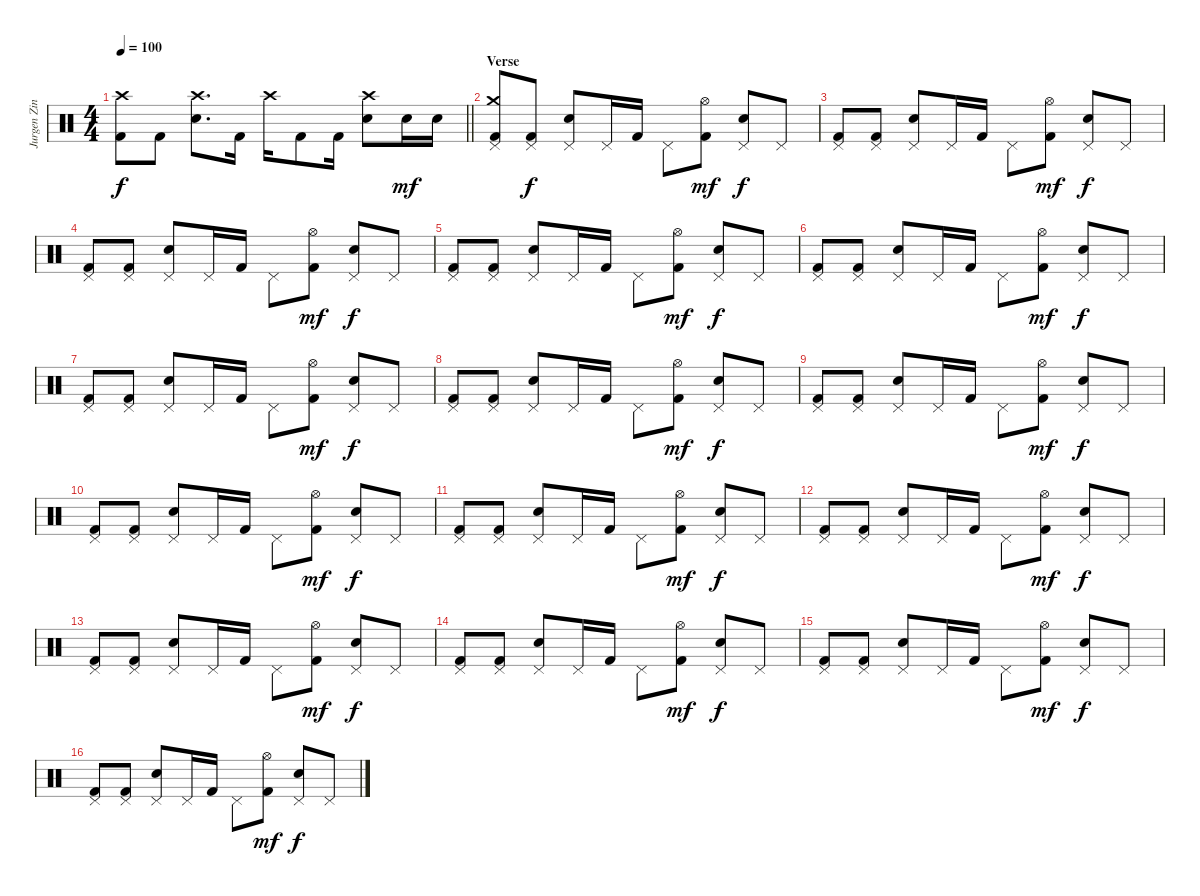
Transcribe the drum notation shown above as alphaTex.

\track ("Jurgen Zing" "Jurgen Zin") {instrument percussion}
\staff {score}
\articulation defaults
\ts (4 4)
\tempo 100
\clef neutral
\barLineRight lightlight
\ks c
("Crash high (hit)" "Kick (hit) 2").8{dy f} "Kick (hit) 2".8 ("Crash high (hit)" "Electric Snare (hit)").8{d} "Kick (hit) 2".16 "Crash high (hit)".16 "Kick (hit) 2".8 "Kick (hit) 2".16 ("Crash high (hit)" "Electric Snare (hit)").8 "Electric Snare (hit)".16{dy mf} "Electric Snare (hit)".16 |
\section ("" "Verse")
("Crash medium (hit)" "Pedal Hi-Hat (hit)" "Kick (hit) 2").8 ("Pedal Hi-Hat (hit)" "Kick (hit) 2").8{dy f} ("Pedal Hi-Hat (hit)" "Electric Snare (hit)").8 "Pedal Hi-Hat (hit)".16 "Kick (hit) 2".16 "Pedal Hi-Hat (hit)".8 ("Hi-Hat (open)" "Kick (hit) 2").8{dy mf} ("Pedal Hi-Hat (hit)" "Electric Snare (hit)").8{dy f} "Pedal Hi-Hat (hit)".8 |
("Pedal Hi-Hat (hit)" "Kick (hit) 2").8 ("Pedal Hi-Hat (hit)" "Kick (hit) 2").8 ("Pedal Hi-Hat (hit)" "Electric Snare (hit)").8 "Pedal Hi-Hat (hit)".16 "Kick (hit) 2".16 "Pedal Hi-Hat (hit)".8 ("Hi-Hat (open)" "Kick (hit) 2").8{dy mf} ("Pedal Hi-Hat (hit)" "Electric Snare (hit)").8{dy f} "Pedal Hi-Hat (hit)".8 |
("Pedal Hi-Hat (hit)" "Kick (hit) 2").8 ("Pedal Hi-Hat (hit)" "Kick (hit) 2").8 ("Pedal Hi-Hat (hit)" "Electric Snare (hit)").8 "Pedal Hi-Hat (hit)".16 "Kick (hit) 2".16 "Pedal Hi-Hat (hit)".8 ("Hi-Hat (open)" "Kick (hit) 2").8{dy mf} ("Pedal Hi-Hat (hit)" "Electric Snare (hit)").8{dy f} "Pedal Hi-Hat (hit)".8 |
("Pedal Hi-Hat (hit)" "Kick (hit) 2").8 ("Pedal Hi-Hat (hit)" "Kick (hit) 2").8 ("Pedal Hi-Hat (hit)" "Electric Snare (hit)").8 "Pedal Hi-Hat (hit)".16 "Kick (hit) 2".16 "Pedal Hi-Hat (hit)".8 ("Hi-Hat (open)" "Kick (hit) 2").8{dy mf} ("Pedal Hi-Hat (hit)" "Electric Snare (hit)").8{dy f} "Pedal Hi-Hat (hit)".8 |
("Pedal Hi-Hat (hit)" "Kick (hit) 2").8 ("Pedal Hi-Hat (hit)" "Kick (hit) 2").8 ("Pedal Hi-Hat (hit)" "Electric Snare (hit)").8 "Pedal Hi-Hat (hit)".16 "Kick (hit) 2".16 "Pedal Hi-Hat (hit)".8 ("Hi-Hat (open)" "Kick (hit) 2").8{dy mf} ("Pedal Hi-Hat (hit)" "Electric Snare (hit)").8{dy f} "Pedal Hi-Hat (hit)".8 |
("Pedal Hi-Hat (hit)" "Kick (hit) 2").8 ("Pedal Hi-Hat (hit)" "Kick (hit) 2").8 ("Pedal Hi-Hat (hit)" "Electric Snare (hit)").8 "Pedal Hi-Hat (hit)".16 "Kick (hit) 2".16 "Pedal Hi-Hat (hit)".8 ("Hi-Hat (open)" "Kick (hit) 2").8{dy mf} ("Pedal Hi-Hat (hit)" "Electric Snare (hit)").8{dy f} "Pedal Hi-Hat (hit)".8 |
("Pedal Hi-Hat (hit)" "Kick (hit) 2").8 ("Pedal Hi-Hat (hit)" "Kick (hit) 2").8 ("Pedal Hi-Hat (hit)" "Electric Snare (hit)").8 "Pedal Hi-Hat (hit)".16 "Kick (hit) 2".16 "Pedal Hi-Hat (hit)".8 ("Hi-Hat (open)" "Kick (hit) 2").8{dy mf} ("Pedal Hi-Hat (hit)" "Electric Snare (hit)").8{dy f} "Pedal Hi-Hat (hit)".8 |
("Pedal Hi-Hat (hit)" "Kick (hit) 2").8 ("Pedal Hi-Hat (hit)" "Kick (hit) 2").8 ("Pedal Hi-Hat (hit)" "Electric Snare (hit)").8 "Pedal Hi-Hat (hit)".16 "Kick (hit) 2".16 "Pedal Hi-Hat (hit)".8 ("Hi-Hat (open)" "Kick (hit) 2").8{dy mf} ("Pedal Hi-Hat (hit)" "Electric Snare (hit)").8{dy f} "Pedal Hi-Hat (hit)".8 |
("Pedal Hi-Hat (hit)" "Kick (hit) 2").8 ("Pedal Hi-Hat (hit)" "Kick (hit) 2").8 ("Pedal Hi-Hat (hit)" "Electric Snare (hit)").8 "Pedal Hi-Hat (hit)".16 "Kick (hit) 2".16 "Pedal Hi-Hat (hit)".8 ("Hi-Hat (open)" "Kick (hit) 2").8{dy mf} ("Pedal Hi-Hat (hit)" "Electric Snare (hit)").8{dy f} "Pedal Hi-Hat (hit)".8 |
("Pedal Hi-Hat (hit)" "Kick (hit) 2").8 ("Pedal Hi-Hat (hit)" "Kick (hit) 2").8 ("Pedal Hi-Hat (hit)" "Electric Snare (hit)").8 "Pedal Hi-Hat (hit)".16 "Kick (hit) 2".16 "Pedal Hi-Hat (hit)".8 ("Hi-Hat (open)" "Kick (hit) 2").8{dy mf} ("Pedal Hi-Hat (hit)" "Electric Snare (hit)").8{dy f} "Pedal Hi-Hat (hit)".8 |
("Pedal Hi-Hat (hit)" "Kick (hit) 2").8 ("Pedal Hi-Hat (hit)" "Kick (hit) 2").8 ("Pedal Hi-Hat (hit)" "Electric Snare (hit)").8 "Pedal Hi-Hat (hit)".16 "Kick (hit) 2".16 "Pedal Hi-Hat (hit)".8 ("Hi-Hat (open)" "Kick (hit) 2").8{dy mf} ("Pedal Hi-Hat (hit)" "Electric Snare (hit)").8{dy f} "Pedal Hi-Hat (hit)".8 |
("Pedal Hi-Hat (hit)" "Kick (hit) 2").8 ("Pedal Hi-Hat (hit)" "Kick (hit) 2").8 ("Pedal Hi-Hat (hit)" "Electric Snare (hit)").8 "Pedal Hi-Hat (hit)".16 "Kick (hit) 2".16 "Pedal Hi-Hat (hit)".8 ("Hi-Hat (open)" "Kick (hit) 2").8{dy mf} ("Pedal Hi-Hat (hit)" "Electric Snare (hit)").8{dy f} "Pedal Hi-Hat (hit)".8 |
("Pedal Hi-Hat (hit)" "Kick (hit) 2").8 ("Pedal Hi-Hat (hit)" "Kick (hit) 2").8 ("Pedal Hi-Hat (hit)" "Electric Snare (hit)").8 "Pedal Hi-Hat (hit)".16 "Kick (hit) 2".16 "Pedal Hi-Hat (hit)".8 ("Hi-Hat (open)" "Kick (hit) 2").8{dy mf} ("Pedal Hi-Hat (hit)" "Electric Snare (hit)").8{dy f} "Pedal Hi-Hat (hit)".8 |
("Pedal Hi-Hat (hit)" "Kick (hit) 2").8 ("Pedal Hi-Hat (hit)" "Kick (hit) 2").8 ("Pedal Hi-Hat (hit)" "Electric Snare (hit)").8 "Pedal Hi-Hat (hit)".16 "Kick (hit) 2".16 "Pedal Hi-Hat (hit)".8 ("Hi-Hat (open)" "Kick (hit) 2").8{dy mf} ("Pedal Hi-Hat (hit)" "Electric Snare (hit)").8{dy f} "Pedal Hi-Hat (hit)".8 |
("Pedal Hi-Hat (hit)" "Kick (hit) 2").8 ("Pedal Hi-Hat (hit)" "Kick (hit) 2").8 ("Pedal Hi-Hat (hit)" "Electric Snare (hit)").8 "Pedal Hi-Hat (hit)".16 "Kick (hit) 2".16 "Pedal Hi-Hat (hit)".8 ("Hi-Hat (open)" "Kick (hit) 2").8{dy mf} ("Pedal Hi-Hat (hit)" "Electric Snare (hit)").8{dy f} "Pedal Hi-Hat (hit)".8
